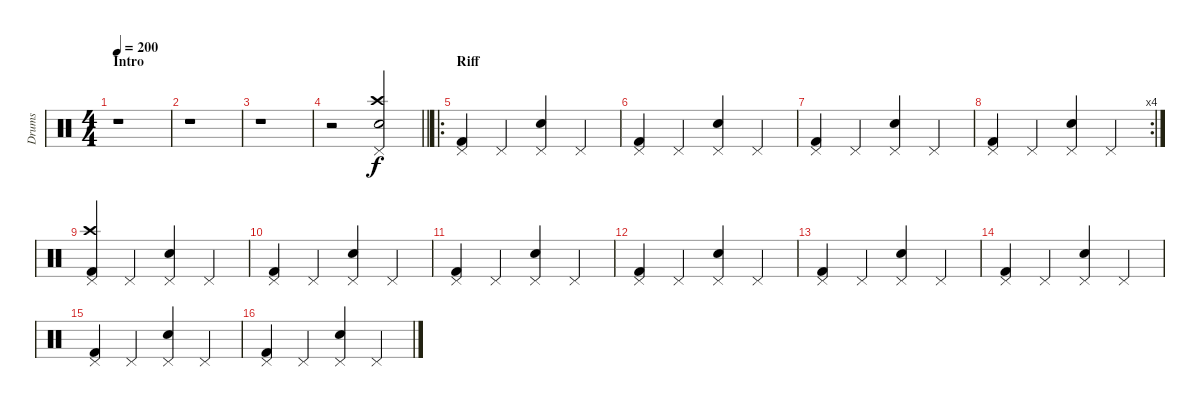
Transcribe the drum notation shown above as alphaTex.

\track ("Drums" "Drums") {instrument percussion}
\staff {score}
\articulation defaults
\ts (4 4)
\section ("" "Intro")
\tempo 200
\clef neutral
\ks c
r.1{dy f} |
r.1 |
r.1 |
\barLineRight lightlight
r.2 ("Pedal Hi-Hat (hit)" "Crash high (hit)" "Snare (hit) 2").2 |
\ro
\section ("" "Riff")
("Pedal Hi-Hat (hit)" "Kick (hit) 2").4 "Pedal Hi-Hat (hit)".4 ("Pedal Hi-Hat (hit)" "Snare (hit) 2").4 "Pedal Hi-Hat (hit)".4 |
("Pedal Hi-Hat (hit)" "Kick (hit) 2").4 "Pedal Hi-Hat (hit)".4 ("Pedal Hi-Hat (hit)" "Snare (hit) 2").4 "Pedal Hi-Hat (hit)".4 |
("Pedal Hi-Hat (hit)" "Kick (hit) 2").4 "Pedal Hi-Hat (hit)".4 ("Pedal Hi-Hat (hit)" "Snare (hit) 2").4 "Pedal Hi-Hat (hit)".4 |
\rc 4
("Pedal Hi-Hat (hit)" "Kick (hit) 2").4 "Pedal Hi-Hat (hit)".4 ("Pedal Hi-Hat (hit)" "Snare (hit) 2").4 "Pedal Hi-Hat (hit)".4 |
("Pedal Hi-Hat (hit)" "Crash high (hit)" "Kick (hit) 2").4 "Pedal Hi-Hat (hit)".4 ("Pedal Hi-Hat (hit)" "Snare (hit) 2").4 "Pedal Hi-Hat (hit)".4 |
("Pedal Hi-Hat (hit)" "Kick (hit) 2").4 "Pedal Hi-Hat (hit)".4 ("Pedal Hi-Hat (hit)" "Snare (hit) 2").4 "Pedal Hi-Hat (hit)".4 |
("Pedal Hi-Hat (hit)" "Kick (hit) 2").4 "Pedal Hi-Hat (hit)".4 ("Pedal Hi-Hat (hit)" "Snare (hit) 2").4 "Pedal Hi-Hat (hit)".4 |
("Pedal Hi-Hat (hit)" "Kick (hit) 2").4 "Pedal Hi-Hat (hit)".4 ("Pedal Hi-Hat (hit)" "Snare (hit) 2").4 "Pedal Hi-Hat (hit)".4 |
("Pedal Hi-Hat (hit)" "Kick (hit) 2").4 "Pedal Hi-Hat (hit)".4 ("Pedal Hi-Hat (hit)" "Snare (hit) 2").4 "Pedal Hi-Hat (hit)".4 |
("Pedal Hi-Hat (hit)" "Kick (hit) 2").4 "Pedal Hi-Hat (hit)".4 ("Pedal Hi-Hat (hit)" "Snare (hit) 2").4 "Pedal Hi-Hat (hit)".4 |
("Pedal Hi-Hat (hit)" "Kick (hit) 2").4 "Pedal Hi-Hat (hit)".4 ("Pedal Hi-Hat (hit)" "Snare (hit) 2").4 "Pedal Hi-Hat (hit)".4 |
("Pedal Hi-Hat (hit)" "Kick (hit) 2").4 "Pedal Hi-Hat (hit)".4 ("Pedal Hi-Hat (hit)" "Snare (hit) 2").4 "Pedal Hi-Hat (hit)".4
